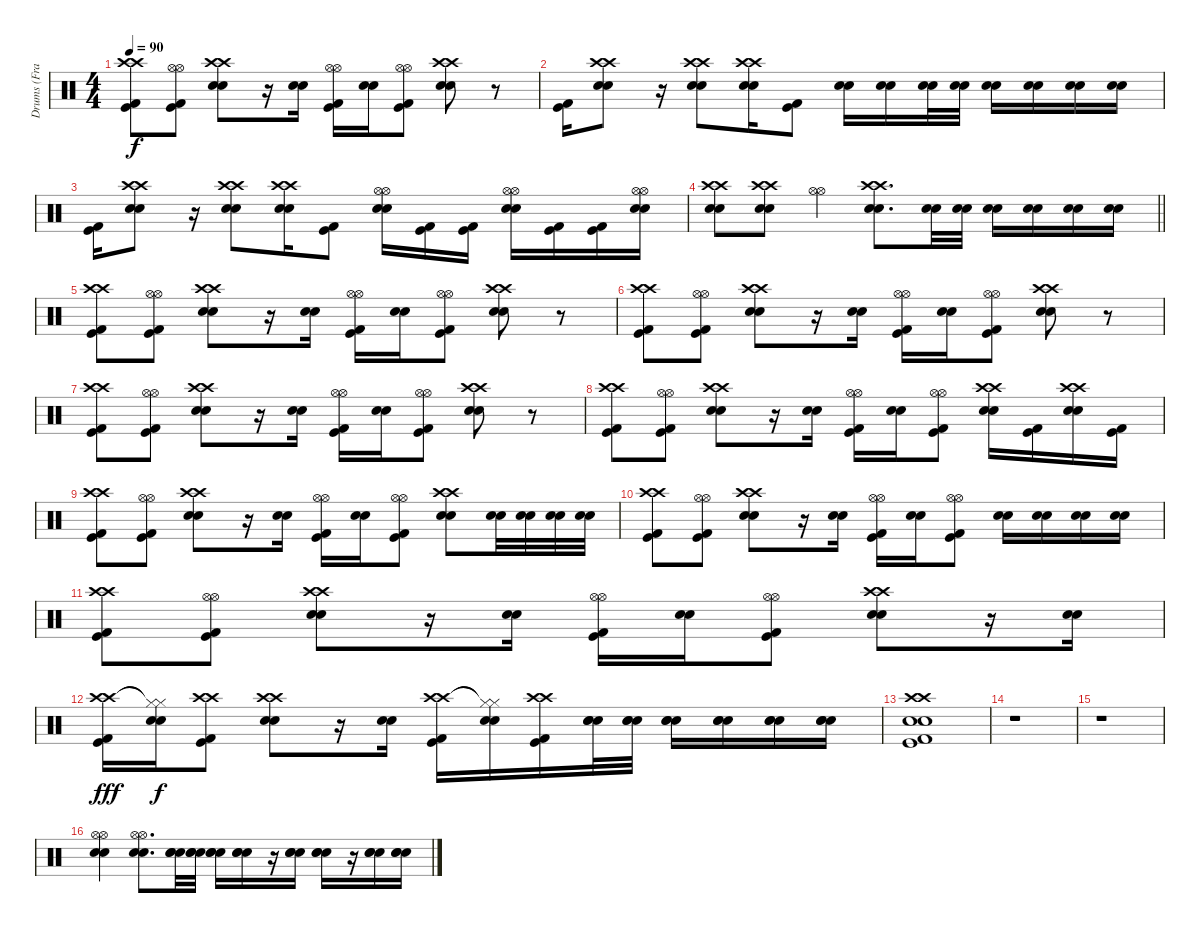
\track ("Drums (Frank Ferrer)" "Drums (Fra") {instrument percussion}
\staff {score}
\articulation defaults
\ts (4 4)
\tempo 90
\clef neutral
\ks c
("Crash high (hit)" "Crash high (hit)" "Kick (hit)" "Kick (hit) 2").8{dy f} ("Hi-Hat (open)" "Hi-Hat (open)" "Kick (hit)" "Kick (hit) 2").8 ("Crash high (hit)" "Crash high (hit)" "Snare (hit) 2" "Snare (hit) 2").8 r.16 ("Snare (hit) 2" "Snare (hit) 2").16 ("Hi-Hat (open)" "Hi-Hat (open)" "Kick (hit)" "Kick (hit) 2").16 ("Snare (hit) 2" "Snare (hit) 2").16 ("Hi-Hat (open)" "Hi-Hat (open)" "Kick (hit)" "Kick (hit) 2").8 ("Crash high (hit)" "Crash high (hit)" "Snare (hit) 2" "Snare (hit) 2").8 r.8 |
("Kick (hit)" "Kick (hit) 2").16 ("Crash high (hit)" "Crash high (hit)" "Snare (hit) 2" "Snare (hit) 2").8 r.16 ("Crash high (hit)" "Crash high (hit)" "Snare (hit) 2" "Snare (hit) 2").8 ("Crash high (hit)" "Crash high (hit)" "Snare (hit) 2" "Snare (hit) 2").16 ("Kick (hit)" "Kick (hit) 2").8 ("Snare (hit) 2" "Snare (hit) 2").16 ("Snare (hit) 2" "Snare (hit) 2").16 ("Snare (hit) 2" "Snare (hit) 2").32 ("Snare (hit) 2" "Snare (hit) 2").32 ("Snare (hit) 2" "Snare (hit) 2").16 ("Snare (hit) 2" "Snare (hit) 2").16 ("Snare (hit) 2" "Snare (hit) 2").16 ("Snare (hit) 2" "Snare (hit) 2").16 |
("Kick (hit)" "Kick (hit) 2").16 ("Crash high (hit)" "Crash high (hit)" "Snare (hit) 2" "Snare (hit) 2").8 r.16 ("Crash high (hit)" "Crash high (hit)" "Snare (hit) 2" "Snare (hit) 2").8 ("Crash high (hit)" "Crash high (hit)" "Snare (hit) 2" "Snare (hit) 2").16 ("Kick (hit)" "Kick (hit) 2").8 ("Hi-Hat (open)" "Hi-Hat (open)" "Snare (hit) 2" "Snare (hit) 2").16 ("Kick (hit)" "Kick (hit) 2").16 ("Kick (hit)" "Kick (hit) 2").16 ("Hi-Hat (open)" "Hi-Hat (open)" "Snare (hit) 2" "Snare (hit) 2").16 ("Kick (hit)" "Kick (hit) 2").16 ("Kick (hit)" "Kick (hit) 2").16 ("Hi-Hat (open)" "Hi-Hat (open)" "Snare (hit) 2" "Snare (hit) 2").16 |
\barLineRight lightlight
("Crash high (hit)" "Crash high (hit)" "Snare (hit) 2" "Snare (hit) 2").8 ("Crash high (hit)" "Crash high (hit)" "Snare (hit) 2" "Snare (hit) 2").8 ("Hi-Hat (open)" "Hi-Hat (open)").4 ("Crash high (hit)" "Crash high (hit)" "Snare (hit) 2" "Snare (hit) 2").8{d} ("Snare (hit) 2" "Snare (hit) 2").32 ("Snare (hit) 2" "Snare (hit) 2").32 ("Snare (hit) 2" "Snare (hit) 2").16 ("Snare (hit) 2" "Snare (hit) 2").16 ("Snare (hit) 2" "Snare (hit) 2").16 ("Snare (hit) 2" "Snare (hit) 2").16 |
("Crash high (hit)" "Crash high (hit)" "Kick (hit)" "Kick (hit) 2").8 ("Hi-Hat (open)" "Hi-Hat (open)" "Kick (hit)" "Kick (hit) 2").8 ("Crash high (hit)" "Crash high (hit)" "Snare (hit) 2" "Snare (hit) 2").8 r.16 ("Snare (hit) 2" "Snare (hit) 2").16 ("Hi-Hat (open)" "Hi-Hat (open)" "Kick (hit)" "Kick (hit) 2").16 ("Snare (hit) 2" "Snare (hit) 2").16 ("Hi-Hat (open)" "Hi-Hat (open)" "Kick (hit)" "Kick (hit) 2").8 ("Crash high (hit)" "Crash high (hit)" "Snare (hit) 2" "Snare (hit) 2").8 r.8 |
("Crash high (hit)" "Crash high (hit)" "Kick (hit)" "Kick (hit) 2").8 ("Hi-Hat (open)" "Hi-Hat (open)" "Kick (hit)" "Kick (hit) 2").8 ("Crash high (hit)" "Crash high (hit)" "Snare (hit) 2" "Snare (hit) 2").8 r.16 ("Snare (hit) 2" "Snare (hit) 2").16 ("Hi-Hat (open)" "Hi-Hat (open)" "Kick (hit)" "Kick (hit) 2").16 ("Snare (hit) 2" "Snare (hit) 2").16 ("Hi-Hat (open)" "Hi-Hat (open)" "Kick (hit)" "Kick (hit) 2").8 ("Crash high (hit)" "Crash high (hit)" "Snare (hit) 2" "Snare (hit) 2").8 r.8 |
("Crash high (hit)" "Crash high (hit)" "Kick (hit)" "Kick (hit) 2").8 ("Hi-Hat (open)" "Hi-Hat (open)" "Kick (hit)" "Kick (hit) 2").8 ("Crash high (hit)" "Crash high (hit)" "Snare (hit) 2" "Snare (hit) 2").8 r.16 ("Snare (hit) 2" "Snare (hit) 2").16 ("Hi-Hat (open)" "Hi-Hat (open)" "Kick (hit)" "Kick (hit) 2").16 ("Snare (hit) 2" "Snare (hit) 2").16 ("Hi-Hat (open)" "Hi-Hat (open)" "Kick (hit)" "Kick (hit) 2").8 ("Crash high (hit)" "Crash high (hit)" "Snare (hit) 2" "Snare (hit) 2").8 r.8 |
("Crash high (hit)" "Crash high (hit)" "Kick (hit)" "Kick (hit) 2").8 ("Hi-Hat (open)" "Hi-Hat (open)" "Kick (hit)" "Kick (hit) 2").8 ("Crash high (hit)" "Crash high (hit)" "Snare (hit) 2" "Snare (hit) 2").8 r.16 ("Snare (hit) 2" "Snare (hit) 2").16 ("Hi-Hat (open)" "Hi-Hat (open)" "Kick (hit)" "Kick (hit) 2").16 ("Snare (hit) 2" "Snare (hit) 2").16 ("Hi-Hat (open)" "Hi-Hat (open)" "Kick (hit)" "Kick (hit) 2").8 ("Crash high (hit)" "Crash high (hit)" "Snare (hit) 2" "Snare (hit) 2").16 ("Kick (hit)" "Kick (hit) 2").16 ("Crash high (hit)" "Crash high (hit)" "Snare (hit) 2" "Snare (hit) 2").16 ("Kick (hit)" "Kick (hit) 2").16 |
("Crash high (hit)" "Crash high (hit)" "Kick (hit)" "Kick (hit) 2").8 ("Hi-Hat (open)" "Hi-Hat (open)" "Kick (hit)" "Kick (hit) 2").8 ("Crash high (hit)" "Crash high (hit)" "Snare (hit) 2" "Snare (hit) 2").8 r.16 ("Snare (hit) 2" "Snare (hit) 2").16 ("Hi-Hat (open)" "Hi-Hat (open)" "Kick (hit)" "Kick (hit) 2").16 ("Snare (hit) 2" "Snare (hit) 2").16 ("Hi-Hat (open)" "Hi-Hat (open)" "Kick (hit)" "Kick (hit) 2").8 ("Crash high (hit)" "Crash high (hit)" "Snare (hit) 2" "Snare (hit) 2").8 ("Snare (hit) 2" "Snare (hit) 2").32 ("Snare (hit) 2" "Snare (hit) 2").32 ("Snare (hit) 2" "Snare (hit) 2").32 ("Snare (hit) 2" "Snare (hit) 2").32 |
("Crash high (hit)" "Crash high (hit)" "Kick (hit)" "Kick (hit) 2").8 ("Hi-Hat (open)" "Hi-Hat (open)" "Kick (hit)" "Kick (hit) 2").8 ("Crash high (hit)" "Crash high (hit)" "Snare (hit) 2" "Snare (hit) 2").8 r.16 ("Snare (hit) 2" "Snare (hit) 2").16 ("Hi-Hat (open)" "Hi-Hat (open)" "Kick (hit)" "Kick (hit) 2").16 ("Snare (hit) 2" "Snare (hit) 2").16 ("Hi-Hat (open)" "Hi-Hat (open)" "Kick (hit)" "Kick (hit) 2").8 ("Snare (hit) 2" "Snare (hit) 2").16 ("Snare (hit) 2" "Snare (hit) 2").16 ("Snare (hit) 2" "Snare (hit) 2").16 ("Snare (hit) 2" "Snare (hit) 2").16 |
("Crash high (hit)" "Crash high (hit)" "Kick (hit)" "Kick (hit) 2").8 ("Hi-Hat (open)" "Hi-Hat (open)" "Kick (hit)" "Kick (hit) 2").8 ("Crash high (hit)" "Crash high (hit)" "Snare (hit) 2" "Snare (hit) 2").8 r.16 ("Snare (hit) 2" "Snare (hit) 2").16 ("Hi-Hat (open)" "Hi-Hat (open)" "Kick (hit)" "Kick (hit) 2").16 ("Snare (hit) 2" "Snare (hit) 2").16 ("Hi-Hat (open)" "Hi-Hat (open)" "Kick (hit)" "Kick (hit) 2").8 ("Crash high (hit)" "Crash high (hit)" "Snare (hit) 2" "Snare (hit) 2").8 r.16 ("Snare (hit) 2" "Snare (hit) 2").16 |
("Crash high (hit)" "Crash high (hit)" "Kick (hit)" "Kick (hit) 2").16{dy fff} ("Hi-Hat (closed)"{t} "Hi-Hat (closed)"{t} "Snare (hit) 2" "Snare (hit) 2").16{dy f} ("Crash high (hit)" "Crash high (hit)" "Kick (hit)" "Kick (hit) 2").8 ("Crash high (hit)" "Crash high (hit)" "Snare (hit) 2" "Snare (hit) 2").8 r.16 ("Snare (hit) 2" "Snare (hit) 2").16 ("Crash high (hit)" "Crash high (hit)" "Kick (hit)" "Kick (hit) 2").16 ("Hi-Hat (closed)"{t} "Hi-Hat (closed)"{t} "Snare (hit) 2" "Snare (hit) 2").16 ("Crash high (hit)" "Crash high (hit)" "Kick (hit)" "Kick (hit) 2").16 ("Snare (hit) 2" "Snare (hit) 2" "Snare (hit) 2").32 ("Snare (hit) 2" "Snare (hit) 2" "Snare (hit) 2").32 ("Snare (hit) 2" "Snare (hit) 2" "Snare (hit) 2").16 ("Snare (hit) 2" "Snare (hit) 2" "Snare (hit) 2").16 ("Snare (hit) 2" "Snare (hit) 2" "Snare (hit) 2").16 ("Snare (hit) 2" "Snare (hit) 2" "Snare (hit) 2").16 |
("Crash high (hit)" "Crash high (hit)" "Snare (hit) 2" "Snare (hit) 2" "Kick (hit)" "Kick (hit) 2").1{volume 16} |
r.1 |
r.1 |
("Hi-Hat (open)" "Hi-Hat (open)" "Snare (hit) 2" "Snare (hit) 2").4{volume 16} ("Hi-Hat (open)" "Hi-Hat (open)" "Snare (hit) 2" "Snare (hit) 2").8{d} ("Snare (hit) 2" "Snare (hit) 2" "Snare (hit) 2").32 ("Snare (hit) 2" "Snare (hit) 2" "Snare (hit) 2").32 ("Snare (hit) 2" "Snare (hit) 2" "Snare (hit) 2").16 ("Snare (hit) 2" "Snare (hit) 2" "Snare (hit) 2").16 r.16 ("Snare (hit) 2" "Snare (hit) 2" "Snare (hit) 2").16 ("Snare (hit) 2" "Snare (hit) 2" "Snare (hit) 2").16 r.16 ("Snare (hit) 2" "Snare (hit) 2" "Snare (hit) 2").16 ("Snare (hit) 2" "Snare (hit) 2" "Snare (hit) 2").16
